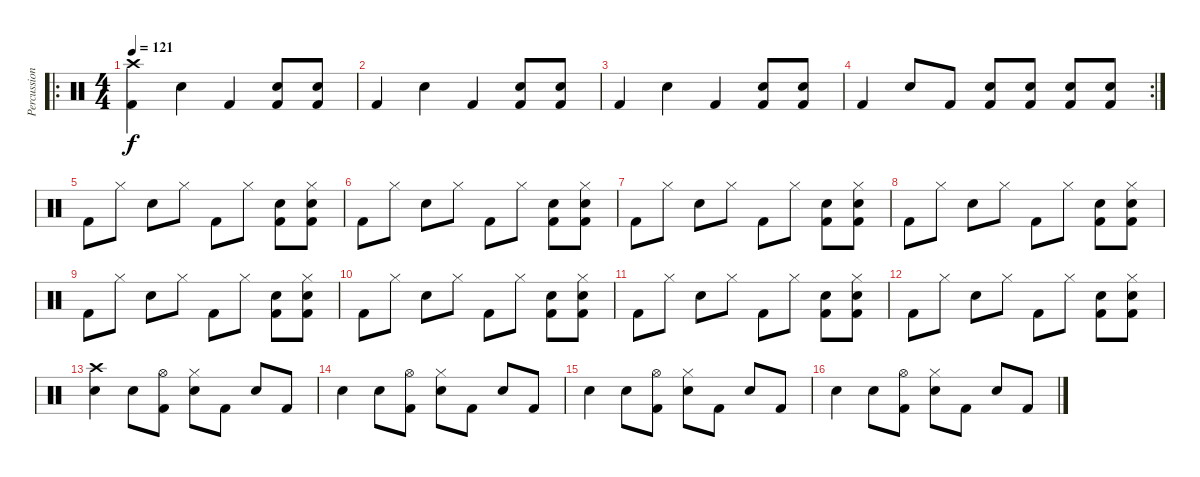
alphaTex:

\track ("Percussion" "Percussion") {instrument percussion}
\staff {score}
\articulation defaults
\ro
\ts (4 4)
\tempo 121
\clef neutral
\ks c
("Crash high (hit)" "Kick (hit) 2").4{dy f} "Snare (hit) 2".4 "Kick (hit) 2".4 ("Kick (hit) 2" "Snare (hit) 2").8 ("Kick (hit) 2" "Snare (hit) 2").8 |
"Kick (hit) 2".4 "Snare (hit) 2".4 "Kick (hit) 2".4 ("Kick (hit) 2" "Snare (hit) 2").8 ("Kick (hit) 2" "Snare (hit) 2").8 |
"Kick (hit) 2".4 "Snare (hit) 2".4 "Kick (hit) 2".4 ("Kick (hit) 2" "Snare (hit) 2").8 ("Kick (hit) 2" "Snare (hit) 2").8 |
\rc 2 "Kick (hit) 2".4 "Snare (hit) 2".8 "Kick (hit) 2".8
("Kick (hit) 2" "Snare (hit) 2").8 ("Kick (hit) 2" "Snare (hit) 2").8 ("Kick (hit) 2" "Snare (hit) 2").8 ("Kick (hit) 2" "Snare (hit) 2").8 |
"Kick (hit) 2".8 "Hi-Hat (closed)".8 "Snare (hit) 2".8 "Hi-Hat (closed)".8 "Kick (hit) 2".8 "Hi-Hat (closed)".8 ("Kick (hit) 2" "Snare (hit) 2").8 ("Hi-Hat (closed)" "Kick (hit) 2" "Snare (hit) 2").8 |
"Kick (hit) 2".8 "Hi-Hat (closed)".8 "Snare (hit) 2".8 "Hi-Hat (closed)".8 "Kick (hit) 2".8 "Hi-Hat (closed)".8 ("Kick (hit) 2" "Snare (hit) 2").8 ("Hi-Hat (closed)" "Kick (hit) 2" "Snare (hit) 2").8 |
"Kick (hit) 2".8 "Hi-Hat (closed)".8 "Snare (hit) 2".8 "Hi-Hat (closed)".8 "Kick (hit) 2".8 "Hi-Hat (closed)".8 ("Kick (hit) 2" "Snare (hit) 2").8 ("Hi-Hat (closed)" "Kick (hit) 2" "Snare (hit) 2").8 |
"Kick (hit) 2".8 "Hi-Hat (closed)".8 "Snare (hit) 2".8 "Hi-Hat (closed)".8 "Kick (hit) 2".8 "Hi-Hat (closed)".8 ("Kick (hit) 2" "Snare (hit) 2").8 ("Hi-Hat (closed)" "Kick (hit) 2" "Snare (hit) 2").8 |
"Kick (hit) 2".8 "Hi-Hat (closed)".8 "Snare (hit) 2".8 "Hi-Hat (closed)".8 "Kick (hit) 2".8 "Hi-Hat (closed)".8 ("Kick (hit) 2" "Snare (hit) 2").8 ("Hi-Hat (closed)" "Kick (hit) 2" "Snare (hit) 2").8 |
"Kick (hit) 2".8 "Hi-Hat (closed)".8 "Snare (hit) 2".8 "Hi-Hat (closed)".8 "Kick (hit) 2".8 "Hi-Hat (closed)".8 ("Kick (hit) 2" "Snare (hit) 2").8 ("Hi-Hat (closed)" "Kick (hit) 2" "Snare (hit) 2").8 |
"Kick (hit) 2".8 "Hi-Hat (closed)".8 "Snare (hit) 2".8 "Hi-Hat (closed)".8 "Kick (hit) 2".8 "Hi-Hat (closed)".8 ("Kick (hit) 2" "Snare (hit) 2").8 ("Hi-Hat (closed)" "Kick (hit) 2" "Snare (hit) 2").8 |
"Kick (hit) 2".8 "Hi-Hat (closed)".8 "Snare (hit) 2".8 "Hi-Hat (closed)".8 "Kick (hit) 2".8 "Hi-Hat (closed)".8 ("Kick (hit) 2" "Snare (hit) 2").8 ("Hi-Hat (closed)" "Kick (hit) 2" "Snare (hit) 2").8 |
("Crash high (hit)" "Snare (hit) 2").4 "Snare (hit) 2".8 ("Hi-Hat (open)" "Kick (hit) 2").8 ("Hi-Hat (closed)" "Snare (hit) 2").8 "Kick (hit) 2".8 "Snare (hit) 2".8 "Kick (hit) 2".8 |
"Snare (hit) 2".4 "Snare (hit) 2".8 ("Hi-Hat (open)" "Kick (hit) 2").8 ("Hi-Hat (closed)" "Snare (hit) 2").8 "Kick (hit) 2".8 "Snare (hit) 2".8 "Kick (hit) 2".8 |
"Snare (hit) 2".4 "Snare (hit) 2".8 ("Hi-Hat (open)" "Kick (hit) 2").8 ("Hi-Hat (closed)" "Snare (hit) 2").8 "Kick (hit) 2".8 "Snare (hit) 2".8 "Kick (hit) 2".8 |
"Snare (hit) 2".4 "Snare (hit) 2".8 ("Hi-Hat (open)" "Kick (hit) 2").8 ("Hi-Hat (closed)" "Snare (hit) 2").8 "Kick (hit) 2".8 "Snare (hit) 2".8 "Kick (hit) 2".8
